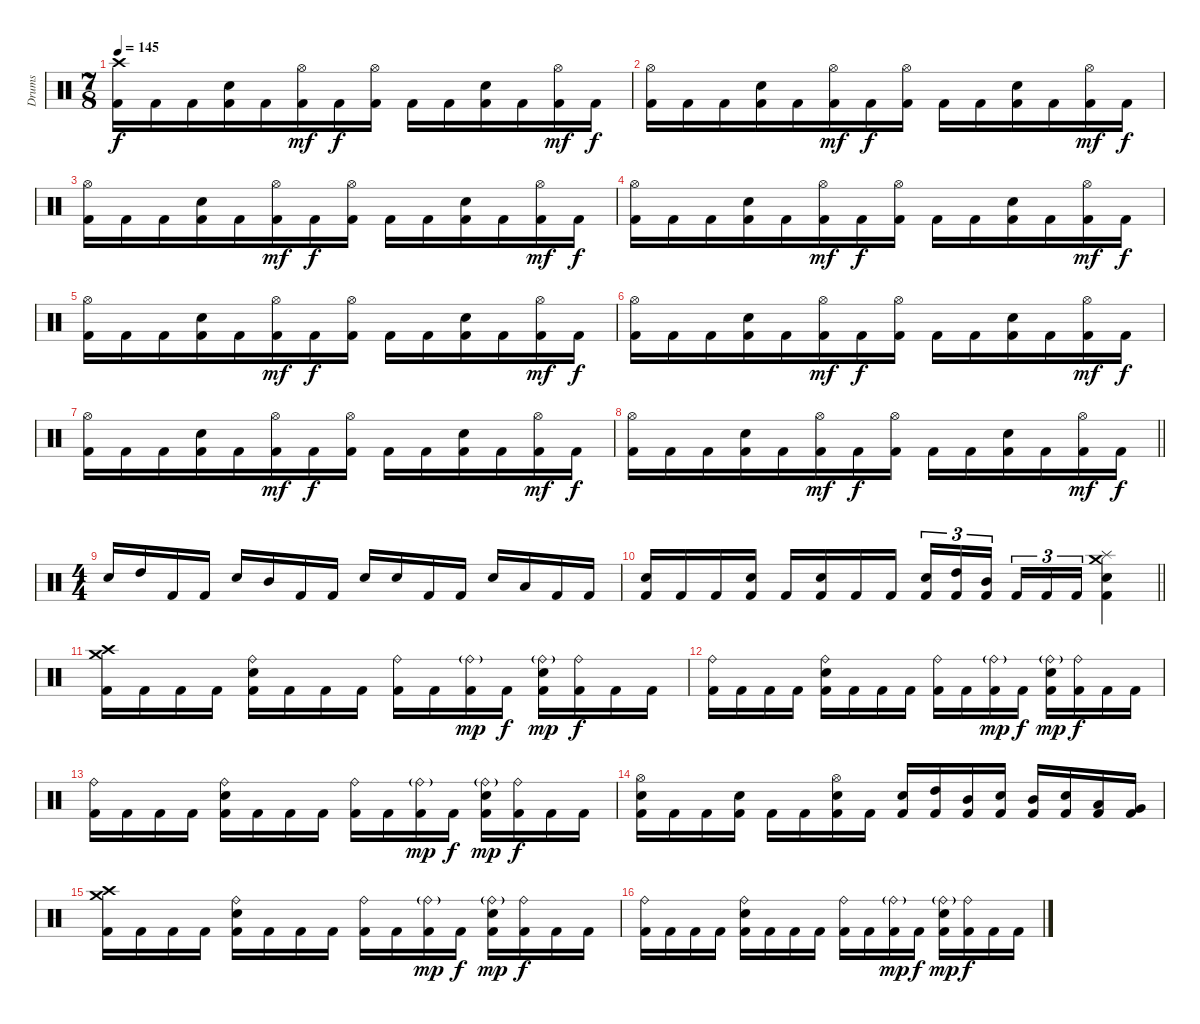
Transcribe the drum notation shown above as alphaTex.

\track ("Drums" "Drums") {instrument percussion}
\staff {score}
\articulation defaults
\ts (7 8)
\tempo 145
\clef neutral
\ks c
("Crash high (hit)" "Kick (hit) 2").16{dy f} "Kick (hit) 2".16 "Kick (hit) 2".16 ("Electric Snare (hit)" "Kick (hit) 2").16 "Kick (hit) 2".16 ("Hi-Hat (open)" "Kick (hit) 2").16{dy mf} "Kick (hit) 2".16{dy f} ("Hi-Hat (open)" "Kick (hit) 2").16 "Kick (hit) 2".16 "Kick (hit) 2".16 ("Electric Snare (hit)" "Kick (hit) 2").16 "Kick (hit) 2".16 ("Hi-Hat (open)" "Kick (hit) 2").16{dy mf} "Kick (hit) 2".16{dy f} |
("Hi-Hat (open)" "Kick (hit) 2").16 "Kick (hit) 2".16 "Kick (hit) 2".16 ("Electric Snare (hit)" "Kick (hit) 2").16 "Kick (hit) 2".16 ("Hi-Hat (open)" "Kick (hit) 2").16{dy mf} "Kick (hit) 2".16{dy f} ("Hi-Hat (open)" "Kick (hit) 2").16 "Kick (hit) 2".16 "Kick (hit) 2".16 ("Electric Snare (hit)" "Kick (hit) 2").16 "Kick (hit) 2".16 ("Hi-Hat (open)" "Kick (hit) 2").16{dy mf} "Kick (hit) 2".16{dy f} |
("Hi-Hat (open)" "Kick (hit) 2").16 "Kick (hit) 2".16 "Kick (hit) 2".16 ("Electric Snare (hit)" "Kick (hit) 2").16 "Kick (hit) 2".16 ("Hi-Hat (open)" "Kick (hit) 2").16{dy mf} "Kick (hit) 2".16{dy f} ("Hi-Hat (open)" "Kick (hit) 2").16 "Kick (hit) 2".16 "Kick (hit) 2".16 ("Electric Snare (hit)" "Kick (hit) 2").16 "Kick (hit) 2".16 ("Hi-Hat (open)" "Kick (hit) 2").16{dy mf} "Kick (hit) 2".16{dy f} |
("Hi-Hat (open)" "Kick (hit) 2").16 "Kick (hit) 2".16 "Kick (hit) 2".16 ("Electric Snare (hit)" "Kick (hit) 2").16 "Kick (hit) 2".16 ("Hi-Hat (open)" "Kick (hit) 2").16{dy mf} "Kick (hit) 2".16{dy f} ("Hi-Hat (open)" "Kick (hit) 2").16 "Kick (hit) 2".16 "Kick (hit) 2".16 ("Electric Snare (hit)" "Kick (hit) 2").16 "Kick (hit) 2".16 ("Hi-Hat (open)" "Kick (hit) 2").16{dy mf} "Kick (hit) 2".16{dy f} |
("Hi-Hat (open)" "Kick (hit) 2").16 "Kick (hit) 2".16 "Kick (hit) 2".16 ("Electric Snare (hit)" "Kick (hit) 2").16 "Kick (hit) 2".16 ("Hi-Hat (open)" "Kick (hit) 2").16{dy mf} "Kick (hit) 2".16{dy f} ("Hi-Hat (open)" "Kick (hit) 2").16 "Kick (hit) 2".16 "Kick (hit) 2".16 ("Electric Snare (hit)" "Kick (hit) 2").16 "Kick (hit) 2".16 ("Hi-Hat (open)" "Kick (hit) 2").16{dy mf} "Kick (hit) 2".16{dy f} |
("Hi-Hat (open)" "Kick (hit) 2").16 "Kick (hit) 2".16 "Kick (hit) 2".16 ("Electric Snare (hit)" "Kick (hit) 2").16 "Kick (hit) 2".16 ("Hi-Hat (open)" "Kick (hit) 2").16{dy mf} "Kick (hit) 2".16{dy f} ("Hi-Hat (open)" "Kick (hit) 2").16 "Kick (hit) 2".16 "Kick (hit) 2".16 ("Electric Snare (hit)" "Kick (hit) 2").16 "Kick (hit) 2".16 ("Hi-Hat (open)" "Kick (hit) 2").16{dy mf} "Kick (hit) 2".16{dy f} |
("Hi-Hat (open)" "Kick (hit) 2").16 "Kick (hit) 2".16 "Kick (hit) 2".16 ("Electric Snare (hit)" "Kick (hit) 2").16 "Kick (hit) 2".16 ("Hi-Hat (open)" "Kick (hit) 2").16{dy mf} "Kick (hit) 2".16{dy f} ("Hi-Hat (open)" "Kick (hit) 2").16 "Kick (hit) 2".16 "Kick (hit) 2".16 ("Electric Snare (hit)" "Kick (hit) 2").16 "Kick (hit) 2".16 ("Hi-Hat (open)" "Kick (hit) 2").16{dy mf} "Kick (hit) 2".16{dy f} |
\barLineRight lightlight
("Hi-Hat (open)" "Kick (hit) 2").16 "Kick (hit) 2".16 "Kick (hit) 2".16 ("Electric Snare (hit)" "Kick (hit) 2").16 "Kick (hit) 2".16 ("Hi-Hat (open)" "Kick (hit) 2").16{dy mf} "Kick (hit) 2".16{dy f} ("Hi-Hat (open)" "Kick (hit) 2").16 "Kick (hit) 2".16 "Kick (hit) 2".16 ("Electric Snare (hit)" "Kick (hit) 2").16 "Kick (hit) 2".16 ("Hi-Hat (open)" "Kick (hit) 2").16{dy mf} "Kick (hit) 2".16{dy f} |
\ts (4 4)
"Electric Snare (hit)".16 "High Tom (hit)".16 "Kick (hit) 2".16 "Kick (hit) 2".16 "Electric Snare (hit)".16 "Mid Tom (hit)".16 "Kick (hit) 2".16 "Kick (hit) 2".16 "Electric Snare (hit)".16 "Electric Snare (hit)".16 "Kick (hit) 2".16 "Kick (hit) 2".16 "Electric Snare (hit)".16 "Low Tom (hit)".16 "Kick (hit) 2".16 "Kick (hit) 2".16 |
\barLineRight lightlight
("Electric Snare (hit)" "Kick (hit) 2").16 "Kick (hit) 2".16 "Kick (hit) 2".16 ("Electric Snare (hit)" "Kick (hit) 2").16 "Kick (hit) 2".16 ("Electric Snare (hit)" "Kick (hit) 2").16 "Kick (hit) 2".16 "Kick (hit) 2".16 ("Electric Snare (hit)" "Kick (hit) 2").16{tu (3 2)} ("High Tom (hit)" "Kick (hit) 2").16{tu (3 2)} ("Mid Tom (hit)" "Kick (hit) 2").16{tu (3 2)} "Kick (hit) 2".16{tu (3 2)} "Kick (hit) 2".16{tu (3 2)} "Kick (hit) 2".16{tu (3 2)} ("Crash medium (hit)" "Splash (hit)" "Electric Snare (hit)" "Kick (hit) 2").4 |
("Crash high (hit)" "Crash medium (hit)" "Kick (hit) 2").16 "Kick (hit) 2".16 "Kick (hit) 2".16 "Kick (hit) 2".16 ("Ride (bell)" "Electric Snare (hit)" "Kick (hit) 2").16 "Kick (hit) 2".16 "Kick (hit) 2".16 "Kick (hit) 2".16 ("Ride (bell)" "Kick (hit) 2").16 "Kick (hit) 2".16 ("Ride (bell)"{g} "Kick (hit) 2").16{dy mp} "Kick (hit) 2".16{dy f} ("Ride (bell)"{g} "Electric Snare (hit)" "Kick (hit) 2").16{dy mp} ("Ride (bell)" "Kick (hit) 2").16{dy f} "Kick (hit) 2".16 "Kick (hit) 2".16 |
("Ride (bell)" "Kick (hit) 2").16 "Kick (hit) 2".16 "Kick (hit) 2".16 "Kick (hit) 2".16 ("Ride (bell)" "Electric Snare (hit)" "Kick (hit) 2").16 "Kick (hit) 2".16 "Kick (hit) 2".16 "Kick (hit) 2".16 ("Ride (bell)" "Kick (hit) 2").16 "Kick (hit) 2".16 ("Ride (bell)"{g} "Kick (hit) 2").16{dy mp} "Kick (hit) 2".16{dy f} ("Ride (bell)"{g} "Electric Snare (hit)" "Kick (hit) 2").16{dy mp} ("Ride (bell)" "Kick (hit) 2").16{dy f} "Kick (hit) 2".16 "Kick (hit) 2".16 |
("Ride (bell)" "Kick (hit) 2").16 "Kick (hit) 2".16 "Kick (hit) 2".16 "Kick (hit) 2".16 ("Ride (bell)" "Electric Snare (hit)" "Kick (hit) 2").16 "Kick (hit) 2".16 "Kick (hit) 2".16 "Kick (hit) 2".16 ("Ride (bell)" "Kick (hit) 2").16 "Kick (hit) 2".16 ("Ride (bell)"{g} "Kick (hit) 2").16{dy mp} "Kick (hit) 2".16{dy f} ("Ride (bell)"{g} "Electric Snare (hit)" "Kick (hit) 2").16{dy mp} ("Ride (bell)" "Kick (hit) 2").16{dy f} "Kick (hit) 2".16 "Kick (hit) 2".16 |
("Hi-Hat (open)" "Electric Snare (hit)" "Kick (hit) 2").16 "Kick (hit) 2".16 "Kick (hit) 2".16 ("Electric Snare (hit)" "Kick (hit) 2").16 "Kick (hit) 2".16 "Kick (hit) 2".16 ("Hi-Hat (open)" "Electric Snare (hit)" "Kick (hit) 2").16 "Kick (hit) 2".16 ("Electric Snare (hit)" "Kick (hit) 2").16 ("High Tom (hit)" "Kick (hit) 2").16 ("Mid Tom (hit)" "Kick (hit) 2").16 ("Electric Snare (hit)" "Kick (hit) 2").16 ("Mid Tom (hit)" "Kick (hit) 2").16 ("Electric Snare (hit)" "Kick (hit) 2").16 ("Low Tom (hit)" "Kick (hit) 2").16 ("Very Low Tom (hit)" "Kick (hit) 2").16 |
("Crash high (hit)" "Crash medium (hit)" "Kick (hit) 2").16 "Kick (hit) 2".16 "Kick (hit) 2".16 "Kick (hit) 2".16 ("Ride (bell)" "Electric Snare (hit)" "Kick (hit) 2").16 "Kick (hit) 2".16 "Kick (hit) 2".16 "Kick (hit) 2".16 ("Ride (bell)" "Kick (hit) 2").16 "Kick (hit) 2".16 ("Ride (bell)"{g} "Kick (hit) 2").16{dy mp} "Kick (hit) 2".16{dy f} ("Ride (bell)"{g} "Electric Snare (hit)" "Kick (hit) 2").16{dy mp} ("Ride (bell)" "Kick (hit) 2").16{dy f} "Kick (hit) 2".16 "Kick (hit) 2".16 |
("Ride (bell)" "Kick (hit) 2").16 "Kick (hit) 2".16 "Kick (hit) 2".16 "Kick (hit) 2".16 ("Ride (bell)" "Electric Snare (hit)" "Kick (hit) 2").16 "Kick (hit) 2".16 "Kick (hit) 2".16 "Kick (hit) 2".16 ("Ride (bell)" "Kick (hit) 2").16 "Kick (hit) 2".16 ("Ride (bell)"{g} "Kick (hit) 2").16{dy mp} "Kick (hit) 2".16{dy f} ("Ride (bell)"{g} "Electric Snare (hit)" "Kick (hit) 2").16{dy mp} ("Ride (bell)" "Kick (hit) 2").16{dy f} "Kick (hit) 2".16 "Kick (hit) 2".16
